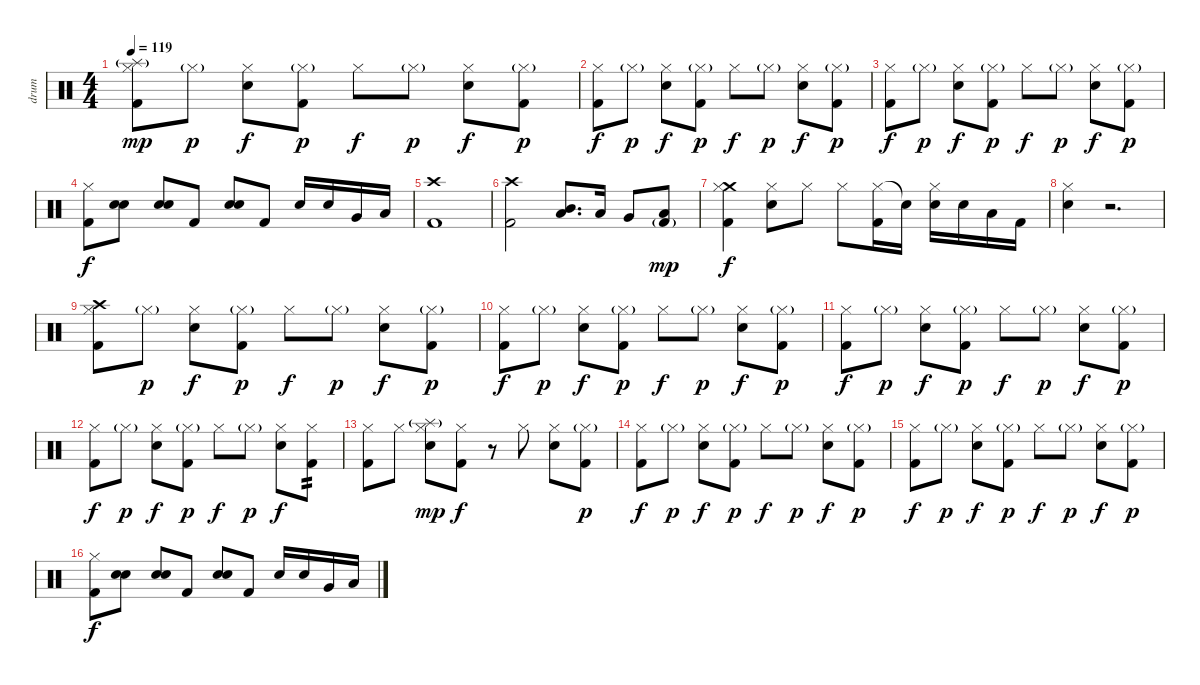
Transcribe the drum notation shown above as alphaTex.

\track ("drum" "drum") {instrument percussion}
\staff {score}
\articulation defaults
\ts (4 4)
\tempo 119
\clef neutral
\ks c
("Splash (hit)"{g} "Hi-Hat (closed)" "Kick (hit) 2").8{dy mp} "Hi-Hat (closed)"{g}.8{dy p} ("Hi-Hat (closed)" "Electric Snare (hit)").8{dy f} ("Hi-Hat (closed)"{g} "Kick (hit) 2").8{dy p} "Hi-Hat (closed)".8{dy f} "Hi-Hat (closed)"{g}.8{dy p} ("Hi-Hat (closed)" "Electric Snare (hit)").8{dy f} ("Hi-Hat (closed)"{g} "Kick (hit) 2").8{dy p} |
("Hi-Hat (closed)" "Kick (hit) 2").8{dy f} "Hi-Hat (closed)"{g}.8{dy p} ("Hi-Hat (closed)" "Electric Snare (hit)").8{dy f} ("Hi-Hat (closed)"{g} "Kick (hit) 2").8{dy p} "Hi-Hat (closed)".8{dy f} "Hi-Hat (closed)"{g}.8{dy p} ("Hi-Hat (closed)" "Electric Snare (hit)").8{dy f} ("Hi-Hat (closed)"{g} "Kick (hit) 2").8{dy p} |
("Hi-Hat (closed)" "Kick (hit) 2").8{dy f} "Hi-Hat (closed)"{g}.8{dy p} ("Hi-Hat (closed)" "Electric Snare (hit)").8{dy f} ("Hi-Hat (closed)"{g} "Kick (hit) 2").8{dy p} "Hi-Hat (closed)".8{dy f} "Hi-Hat (closed)"{g}.8{dy p} ("Hi-Hat (closed)" "Electric Snare (hit)").8{dy f} ("Hi-Hat (closed)"{g} "Kick (hit) 2").8{dy p} |
("Hi-Hat (closed)" "Kick (hit) 2").8{dy f} ("Electric Snare (hit)" "Electric Snare (hit)").8{bd 120} ("Electric Snare (hit)" "Electric Snare (hit)").8{bd 120} "Kick (hit) 2".8 ("Electric Snare (hit)" "Electric Snare (hit)").8{bd 120} "Kick (hit) 2".8 "Electric Snare (hit)".16 "Electric Snare (hit)".16 "Very Low Tom (hit)".16 "Low Floor Tom (hit)".16 |
("Crash high (hit)" "Kick (hit) 2").1 |
("Crash high (hit)" "Kick (hit) 2").2 ("Low Tom (hit)" "Mid Tom (hit)").8{d bu 120} "Low Tom (hit)".16 "Very Low Tom (hit)".8 ("Low Floor Tom (hit)" "Kick (hit) 2"{g}).8{dy mp} |
("Crash medium (hit)" "Hi-Hat (closed)" "Kick (hit) 2").4{dy f} ("Hi-Hat (closed)" "Electric Snare (hit)").8 "Hi-Hat (closed)".8 "Hi-Hat (closed)".8 ("Hi-Hat (closed)" "Kick (hit) 2").16 "Snare (hit)"{t}.16 ("Hi-Hat (closed)" "Electric Snare (hit)").16 "Electric Snare (hit)".16 "Low Tom (hit)".16 "Kick (hit) 2".16 |
("Hi-Hat (closed)" "Electric Snare (hit)").4 r.2{d} |
("Crash high (hit)" "Hi-Hat (closed)" "Kick (hit) 2").8 "Hi-Hat (closed)"{g}.8{dy p} ("Hi-Hat (closed)" "Electric Snare (hit)").8{dy f} ("Hi-Hat (closed)"{g} "Kick (hit) 2").8{dy p} "Hi-Hat (closed)".8{dy f} "Hi-Hat (closed)"{g}.8{dy p} ("Hi-Hat (closed)" "Electric Snare (hit)").8{dy f} ("Hi-Hat (closed)"{g} "Kick (hit) 2").8{dy p} |
("Hi-Hat (closed)" "Kick (hit) 2").8{dy f} "Hi-Hat (closed)"{g}.8{dy p} ("Hi-Hat (closed)" "Electric Snare (hit)").8{dy f} ("Hi-Hat (closed)"{g} "Kick (hit) 2").8{dy p} "Hi-Hat (closed)".8{dy f} "Hi-Hat (closed)"{g}.8{dy p} ("Hi-Hat (closed)" "Electric Snare (hit)").8{dy f} ("Hi-Hat (closed)"{g} "Kick (hit) 2").8{dy p} |
("Hi-Hat (closed)" "Kick (hit) 2").8{dy f} "Hi-Hat (closed)"{g}.8{dy p} ("Hi-Hat (closed)" "Electric Snare (hit)").8{dy f} ("Hi-Hat (closed)"{g} "Kick (hit) 2").8{dy p} "Hi-Hat (closed)".8{dy f} "Hi-Hat (closed)"{g}.8{dy p} ("Hi-Hat (closed)" "Electric Snare (hit)").8{dy f} ("Hi-Hat (closed)"{g} "Kick (hit) 2").8{dy p} |
("Hi-Hat (closed)" "Kick (hit) 2").8{dy f} "Hi-Hat (closed)"{g}.8{dy p} ("Hi-Hat (closed)" "Electric Snare (hit)").8{dy f} ("Hi-Hat (closed)"{g} "Kick (hit) 2").8{dy p} "Hi-Hat (closed)".8{dy f} "Hi-Hat (closed)"{g}.8{dy p} ("Hi-Hat (closed)" "Electric Snare (hit)").8{dy f} ("Hi-Hat (closed)" "Kick (hit) 2").8{tp 2} |
("Hi-Hat (closed)" "Kick (hit) 2").8 "Hi-Hat (closed)".8 ("Splash (hit)"{g} "Hi-Hat (closed)" "Electric Snare (hit)").8{dy mp} ("Hi-Hat (closed)" "Kick (hit) 2").8{dy f} r.8 "Hi-Hat (closed)".8 ("Hi-Hat (closed)" "Electric Snare (hit)").8 ("Hi-Hat (closed)"{g} "Kick (hit) 2").8{dy p} |
("Hi-Hat (closed)" "Kick (hit) 2").8{dy f} "Hi-Hat (closed)"{g}.8{dy p} ("Hi-Hat (closed)" "Electric Snare (hit)").8{dy f} ("Hi-Hat (closed)"{g} "Kick (hit) 2").8{dy p} "Hi-Hat (closed)".8{dy f} "Hi-Hat (closed)"{g}.8{dy p} ("Hi-Hat (closed)" "Electric Snare (hit)").8{dy f} ("Hi-Hat (closed)"{g} "Kick (hit) 2").8{dy p} |
("Hi-Hat (closed)" "Kick (hit) 2").8{dy f} "Hi-Hat (closed)"{g}.8{dy p} ("Hi-Hat (closed)" "Electric Snare (hit)").8{dy f} ("Hi-Hat (closed)"{g} "Kick (hit) 2").8{dy p} "Hi-Hat (closed)".8{dy f} "Hi-Hat (closed)"{g}.8{dy p} ("Hi-Hat (closed)" "Electric Snare (hit)").8{dy f} ("Hi-Hat (closed)"{g} "Kick (hit) 2").8{dy p} |
("Hi-Hat (closed)" "Kick (hit) 2").8{dy f} ("Electric Snare (hit)" "Electric Snare (hit)").8{bd 120} ("Electric Snare (hit)" "Electric Snare (hit)").8{bd 120} "Kick (hit) 2".8 ("Electric Snare (hit)" "Electric Snare (hit)").8{bd 120} "Kick (hit) 2".8 "Electric Snare (hit)".16 "Electric Snare (hit)".16 "Very Low Tom (hit)".16 "Low Floor Tom (hit)".16
